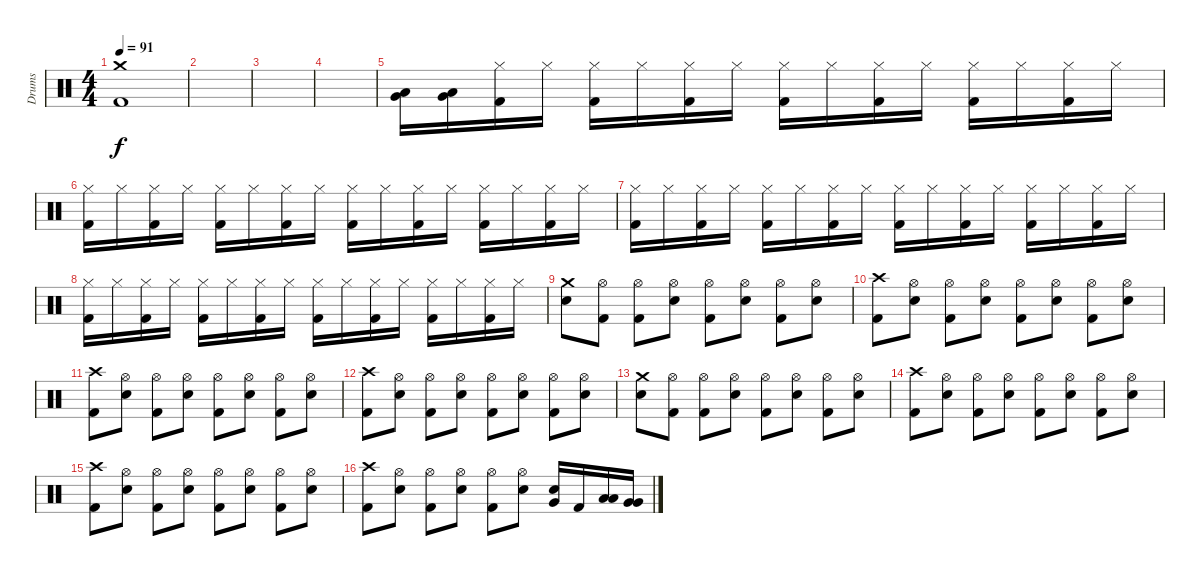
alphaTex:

\track ("Drums" "Drums") {instrument percussion}
\staff {score}
\articulation defaults
\ts (4 4)
\tempo 91
\clef neutral
\ks c
("Crash medium (hit)" "Kick (hit) 2").1{dy f} |
|
|
|
("Low Floor Tom (hit)" "Very Low Tom (hit)").16 ("Low Floor Tom (hit)" "Very Low Tom (hit)").16 ("Hi-Hat (closed)" "Kick (hit) 2").16 "Hi-Hat (closed)".16 ("Hi-Hat (closed)" "Kick (hit) 2").16 "Hi-Hat (closed)".16 ("Hi-Hat (closed)" "Kick (hit) 2").16 "Hi-Hat (closed)".16 ("Hi-Hat (closed)" "Kick (hit) 2").16 "Hi-Hat (closed)".16 ("Hi-Hat (closed)" "Kick (hit) 2").16 "Hi-Hat (closed)".16 ("Hi-Hat (closed)" "Kick (hit) 2").16 "Hi-Hat (closed)".16 ("Hi-Hat (closed)" "Kick (hit) 2").16 "Hi-Hat (closed)".16 |
("Hi-Hat (closed)" "Kick (hit) 2").16 "Hi-Hat (closed)".16 ("Hi-Hat (closed)" "Kick (hit) 2").16 "Hi-Hat (closed)".16 ("Hi-Hat (closed)" "Kick (hit) 2").16 "Hi-Hat (closed)".16 ("Hi-Hat (closed)" "Kick (hit) 2").16 "Hi-Hat (closed)".16 ("Hi-Hat (closed)" "Kick (hit) 2").16 "Hi-Hat (closed)".16 ("Hi-Hat (closed)" "Kick (hit) 2").16 "Hi-Hat (closed)".16 ("Hi-Hat (closed)" "Kick (hit) 2").16 "Hi-Hat (closed)".16 ("Hi-Hat (closed)" "Kick (hit) 2").16 "Hi-Hat (closed)".16 |
("Hi-Hat (closed)" "Kick (hit) 2").16 "Hi-Hat (closed)".16 ("Hi-Hat (closed)" "Kick (hit) 2").16 "Hi-Hat (closed)".16 ("Hi-Hat (closed)" "Kick (hit) 2").16 "Hi-Hat (closed)".16 ("Hi-Hat (closed)" "Kick (hit) 2").16 "Hi-Hat (closed)".16 ("Hi-Hat (closed)" "Kick (hit) 2").16 "Hi-Hat (closed)".16 ("Hi-Hat (closed)" "Kick (hit) 2").16 "Hi-Hat (closed)".16 ("Hi-Hat (closed)" "Kick (hit) 2").16 "Hi-Hat (closed)".16 ("Hi-Hat (closed)" "Kick (hit) 2").16 "Hi-Hat (closed)".16 |
("Hi-Hat (closed)" "Kick (hit) 2").16 "Hi-Hat (closed)".16 ("Hi-Hat (closed)" "Kick (hit) 2").16 "Hi-Hat (closed)".16 ("Hi-Hat (closed)" "Kick (hit) 2").16 "Hi-Hat (closed)".16 ("Hi-Hat (closed)" "Kick (hit) 2").16 "Hi-Hat (closed)".16 ("Hi-Hat (closed)" "Kick (hit) 2").16 "Hi-Hat (closed)".16 ("Hi-Hat (closed)" "Kick (hit) 2").16 "Hi-Hat (closed)".16 ("Hi-Hat (closed)" "Kick (hit) 2").16 "Hi-Hat (closed)".16 ("Hi-Hat (closed)" "Kick (hit) 2").16 "Hi-Hat (closed)".16 |
("Crash medium (hit)" "Electric Snare (hit)").8 ("Hi-Hat (open)" "Kick (hit) 2").8 ("Hi-Hat (open)" "Kick (hit) 2").8 ("Hi-Hat (open)" "Electric Snare (hit)").8 ("Hi-Hat (open)" "Kick (hit) 2").8 ("Hi-Hat (open)" "Electric Snare (hit)").8 ("Hi-Hat (open)" "Kick (hit) 2").8 ("Hi-Hat (open)" "Electric Snare (hit)").8 |
("Crash high (hit)" "Kick (hit) 2").8 ("Hi-Hat (open)" "Electric Snare (hit)").8 ("Hi-Hat (open)" "Kick (hit) 2").8 ("Hi-Hat (open)" "Electric Snare (hit)").8 ("Hi-Hat (open)" "Kick (hit) 2").8 ("Hi-Hat (open)" "Electric Snare (hit)").8 ("Hi-Hat (open)" "Kick (hit) 2").8 ("Hi-Hat (open)" "Electric Snare (hit)").8 |
("Crash high (hit)" "Kick (hit) 2").8 ("Hi-Hat (open)" "Electric Snare (hit)").8 ("Hi-Hat (open)" "Kick (hit) 2").8 ("Hi-Hat (open)" "Electric Snare (hit)").8 ("Hi-Hat (open)" "Kick (hit) 2").8 ("Hi-Hat (open)" "Electric Snare (hit)").8 ("Hi-Hat (open)" "Kick (hit) 2").8 ("Hi-Hat (open)" "Electric Snare (hit)").8 |
("Crash high (hit)" "Kick (hit) 2").8 ("Hi-Hat (open)" "Electric Snare (hit)").8 ("Hi-Hat (open)" "Kick (hit) 2").8 ("Hi-Hat (open)" "Electric Snare (hit)").8 ("Hi-Hat (open)" "Kick (hit) 2").8 ("Hi-Hat (open)" "Electric Snare (hit)").8 ("Hi-Hat (open)" "Kick (hit) 2").8 ("Hi-Hat (open)" "Electric Snare (hit)").8 |
("Crash medium (hit)" "Electric Snare (hit)").8 ("Hi-Hat (open)" "Kick (hit) 2").8 ("Hi-Hat (open)" "Kick (hit) 2").8 ("Hi-Hat (open)" "Electric Snare (hit)").8 ("Hi-Hat (open)" "Kick (hit) 2").8 ("Hi-Hat (open)" "Electric Snare (hit)").8 ("Hi-Hat (open)" "Kick (hit) 2").8 ("Hi-Hat (open)" "Electric Snare (hit)").8 |
("Crash high (hit)" "Kick (hit) 2").8 ("Hi-Hat (open)" "Electric Snare (hit)").8 ("Hi-Hat (open)" "Kick (hit) 2").8 ("Hi-Hat (open)" "Electric Snare (hit)").8 ("Hi-Hat (open)" "Kick (hit) 2").8 ("Hi-Hat (open)" "Electric Snare (hit)").8 ("Hi-Hat (open)" "Kick (hit) 2").8 ("Hi-Hat (open)" "Electric Snare (hit)").8 |
("Crash high (hit)" "Kick (hit) 2").8 ("Hi-Hat (open)" "Electric Snare (hit)").8 ("Hi-Hat (open)" "Kick (hit) 2").8 ("Hi-Hat (open)" "Electric Snare (hit)").8 ("Hi-Hat (open)" "Kick (hit) 2").8 ("Hi-Hat (open)" "Electric Snare (hit)").8 ("Hi-Hat (open)" "Kick (hit) 2").8 ("Hi-Hat (open)" "Electric Snare (hit)").8 |
("Crash high (hit)" "Kick (hit) 2").8 ("Hi-Hat (open)" "Electric Snare (hit)").8 ("Hi-Hat (open)" "Kick (hit) 2").8 ("Hi-Hat (open)" "Electric Snare (hit)").8 ("Hi-Hat (open)" "Kick (hit) 2").8 ("Hi-Hat (open)" "Electric Snare (hit)").8 ("Very Low Tom (hit)" "Electric Snare (hit)").16 "Kick (hit) 2".16 ("Low Tom (hit)" "Low Tom (hit)").16 ("Very Low Tom (hit)" "Very Low Tom (hit)").16
